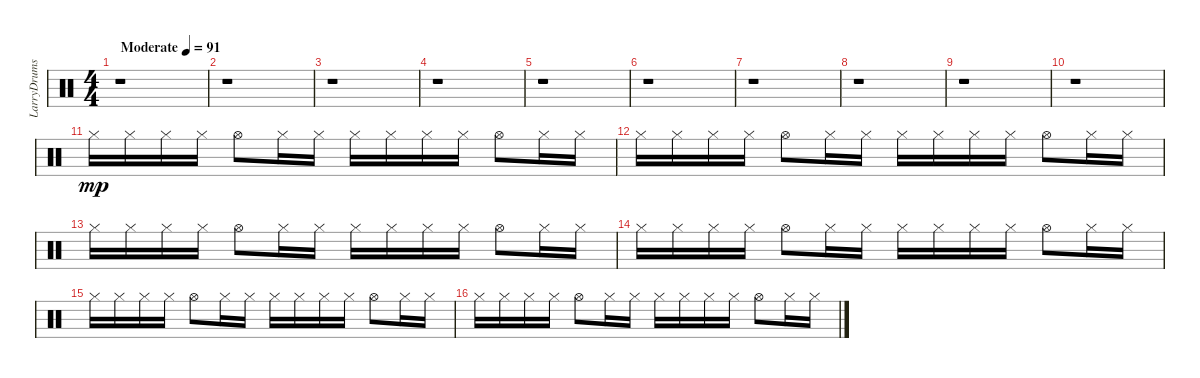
\track ("LarryDrums2" "LarryDrums") {instrument percussion}
\staff {score}
\articulation defaults
\ts (4 4)
\tempo (91 "Moderate")
\clef neutral
\ks c
r.1{dy mp} |
r.1 |
r.1 |
r.1 |
r.1 |
r.1 |
r.1 |
r.1 |
r.1 |
r.1 |
"Hi-Hat (closed)".16 "Hi-Hat (closed)".16 "Hi-Hat (closed)".16 "Hi-Hat (closed)".16 "Hi-Hat (open)".8 "Hi-Hat (closed)".16 "Hi-Hat (closed)".16 "Hi-Hat (closed)".16 "Hi-Hat (closed)".16 "Hi-Hat (closed)".16 "Hi-Hat (closed)".16 "Hi-Hat (open)".8 "Hi-Hat (closed)".16 "Hi-Hat (closed)".16 |
"Hi-Hat (closed)".16 "Hi-Hat (closed)".16 "Hi-Hat (closed)".16 "Hi-Hat (closed)".16 "Hi-Hat (open)".8 "Hi-Hat (closed)".16 "Hi-Hat (closed)".16 "Hi-Hat (closed)".16 "Hi-Hat (closed)".16 "Hi-Hat (closed)".16 "Hi-Hat (closed)".16 "Hi-Hat (open)".8 "Hi-Hat (closed)".16 "Hi-Hat (closed)".16 |
"Hi-Hat (closed)".16 "Hi-Hat (closed)".16 "Hi-Hat (closed)".16 "Hi-Hat (closed)".16 "Hi-Hat (open)".8 "Hi-Hat (closed)".16 "Hi-Hat (closed)".16 "Hi-Hat (closed)".16 "Hi-Hat (closed)".16 "Hi-Hat (closed)".16 "Hi-Hat (closed)".16 "Hi-Hat (open)".8 "Hi-Hat (closed)".16 "Hi-Hat (closed)".16 |
"Hi-Hat (closed)".16 "Hi-Hat (closed)".16 "Hi-Hat (closed)".16 "Hi-Hat (closed)".16 "Hi-Hat (open)".8 "Hi-Hat (closed)".16 "Hi-Hat (closed)".16 "Hi-Hat (closed)".16 "Hi-Hat (closed)".16 "Hi-Hat (closed)".16 "Hi-Hat (closed)".16 "Hi-Hat (open)".8 "Hi-Hat (closed)".16 "Hi-Hat (closed)".16 |
"Hi-Hat (closed)".16 "Hi-Hat (closed)".16 "Hi-Hat (closed)".16 "Hi-Hat (closed)".16 "Hi-Hat (open)".8 "Hi-Hat (closed)".16 "Hi-Hat (closed)".16 "Hi-Hat (closed)".16 "Hi-Hat (closed)".16 "Hi-Hat (closed)".16 "Hi-Hat (closed)".16 "Hi-Hat (open)".8 "Hi-Hat (closed)".16 "Hi-Hat (closed)".16 |
"Hi-Hat (closed)".16 "Hi-Hat (closed)".16 "Hi-Hat (closed)".16 "Hi-Hat (closed)".16 "Hi-Hat (open)".8 "Hi-Hat (closed)".16 "Hi-Hat (closed)".16 "Hi-Hat (closed)".16 "Hi-Hat (closed)".16 "Hi-Hat (closed)".16 "Hi-Hat (closed)".16 "Hi-Hat (open)".8 "Hi-Hat (closed)".16 "Hi-Hat (closed)".16
